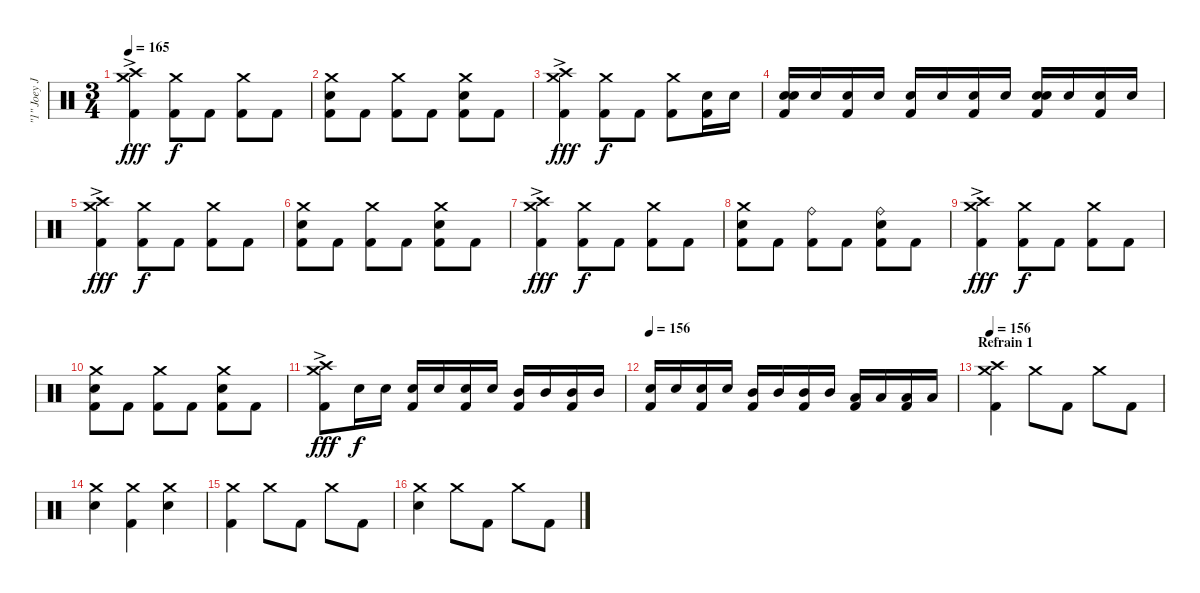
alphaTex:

\track ("\"1\" Joey Jordison (Drums)" "\"1\" Joey J") {instrument percussion}
\staff {score}
\articulation defaults
\ts (3 4)
\tempo 165
\clef neutral
\ks c
("Crash high (hit)"{ac} "Crash medium (hit)" "Kick (hit) 2").4{dy fff} ("Crash medium (hit)" "Kick (hit) 2").8{dy f} "Kick (hit) 2".8 ("Crash medium (hit)" "Kick (hit) 2").8 "Kick (hit) 2".8 |
("Crash medium (hit)" "Electric Snare (hit)" "Kick (hit) 2").8 "Kick (hit) 2".8 ("Crash medium (hit)" "Kick (hit) 2").8 "Kick (hit) 2".8 ("Crash medium (hit)" "Electric Snare (hit)" "Kick (hit) 2").8 "Kick (hit) 2".8 |
("Crash high (hit)"{ac} "Crash medium (hit)" "Kick (hit) 2").4{dy fff} ("Crash medium (hit)" "Kick (hit) 2").8{dy f} "Kick (hit) 2".8 ("Crash medium (hit)" "Kick (hit) 2").8 ("Electric Snare (hit)" "Kick (hit) 2").16 "Electric Snare (hit)".16 |
("Electric Snare (hit)" "Electric Snare (hit)" "Kick (hit) 2").16{bd 60} "Electric Snare (hit)".16 ("Electric Snare (hit)" "Kick (hit) 2").16 "Electric Snare (hit)".16 ("Electric Snare (hit)" "Kick (hit) 2").16 "Electric Snare (hit)".16 ("Electric Snare (hit)" "Kick (hit) 2").16 "Electric Snare (hit)".16 ("Electric Snare (hit)" "Electric Snare (hit)" "Kick (hit) 2").16{bd 60} "Electric Snare (hit)".16 ("Electric Snare (hit)" "Kick (hit) 2").16 "Electric Snare (hit)".16 |
("Crash high (hit)"{ac} "Crash medium (hit)" "Kick (hit) 2").4{dy fff} ("Crash medium (hit)" "Kick (hit) 2").8{dy f} "Kick (hit) 2".8 ("Crash medium (hit)" "Kick (hit) 2").8 "Kick (hit) 2".8 |
("Crash medium (hit)" "Electric Snare (hit)" "Kick (hit) 2").8 "Kick (hit) 2".8 ("Crash medium (hit)" "Kick (hit) 2").8 "Kick (hit) 2".8 ("Crash medium (hit)" "Electric Snare (hit)" "Kick (hit) 2").8 "Kick (hit) 2".8 |
("Crash high (hit)"{ac} "Crash medium (hit)" "Kick (hit) 2").4{dy fff} ("Crash medium (hit)" "Kick (hit) 2").8{dy f} "Kick (hit) 2".8 ("Crash medium (hit)" "Kick (hit) 2").8 "Kick (hit) 2".8 |
("Crash medium (hit)" "Electric Snare (hit)" "Kick (hit) 2").8 "Kick (hit) 2".8 ("Ride (bell)" "Kick (hit) 2").8 "Kick (hit) 2".8 ("Ride (bell)" "Electric Snare (hit)" "Kick (hit) 2").8 "Kick (hit) 2".8 |
("Crash high (hit)"{ac} "Crash medium (hit)" "Kick (hit) 2").4{dy fff} ("Crash medium (hit)" "Kick (hit) 2").8{dy f} "Kick (hit) 2".8 ("Crash medium (hit)" "Kick (hit) 2").8 "Kick (hit) 2".8 |
("Crash medium (hit)" "Electric Snare (hit)" "Kick (hit) 2").8 "Kick (hit) 2".8 ("Crash medium (hit)" "Kick (hit) 2").8 "Kick (hit) 2".8 ("Crash medium (hit)" "Electric Snare (hit)" "Kick (hit) 2").8 "Kick (hit) 2".8 |
("Crash high (hit)"{ac} "Crash medium (hit)" "Kick (hit) 2").8{dy fff} "Electric Snare (hit)".16{dy f} "Electric Snare (hit)".16 ("Electric Snare (hit)" "Kick (hit) 2").16 "Electric Snare (hit)".16 ("Electric Snare (hit)" "Kick (hit) 2").16 "Electric Snare (hit)".16 ("Mid Tom (hit)" "Kick (hit) 2").16 "Mid Tom (hit)".16 ("Mid Tom (hit)" "Kick (hit) 2").16 "Mid Tom (hit)".16 |
\tempo 156
("Electric Snare (hit)" "Kick (hit) 2").16 "Electric Snare (hit)".16 ("Electric Snare (hit)" "Kick (hit) 2").16 "Electric Snare (hit)".16 ("Mid Tom (hit)" "Kick (hit) 2").16 "Mid Tom (hit)".16 ("Mid Tom (hit)" "Kick (hit) 2").16 "Mid Tom (hit)".16 ("Low Tom (hit)" "Kick (hit) 2").16 "Low Tom (hit)".16 ("Low Tom (hit)" "Kick (hit) 2").16 "Low Tom (hit)".16 |
\section ("" "Refrain 1")
\tempo 156
("Crash high (hit)" "Crash medium (hit)" "Kick (hit) 2").4 "Crash medium (hit)".8 "Kick (hit) 2".8 "Crash medium (hit)".8 "Kick (hit) 2".8 |
("Crash medium (hit)" "Electric Snare (hit)").4 ("Crash medium (hit)" "Kick (hit) 2").4 ("Crash medium (hit)" "Electric Snare (hit)").4 |
("Crash medium (hit)" "Kick (hit) 2").4 "Crash medium (hit)".8 "Kick (hit) 2".8 "Crash medium (hit)".8 "Kick (hit) 2".8 |
("Crash medium (hit)" "Electric Snare (hit)").4 "Crash medium (hit)".8 "Kick (hit) 2".8 "Crash medium (hit)".8 "Kick (hit) 2".8
